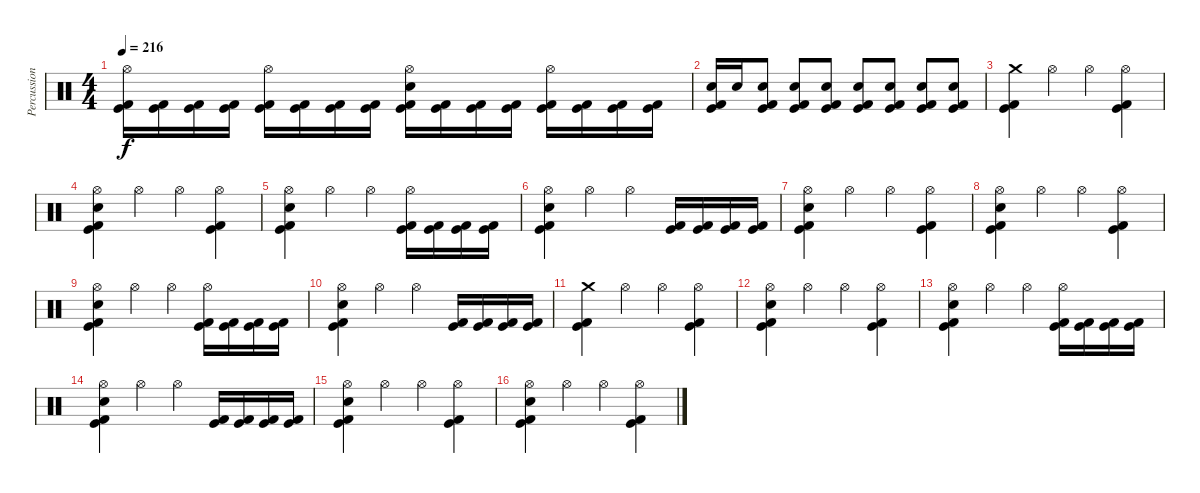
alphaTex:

\track ("Percussion" "Percussion") {instrument percussion}
\staff {score}
\articulation defaults
\ts (4 4)
\tempo 216
\clef neutral
\ks c
("Hi-Hat (open)" "Kick (hit)" "Kick (hit) 2").16{dy f} ("Kick (hit)" "Kick (hit) 2").16 ("Kick (hit)" "Kick (hit) 2").16 ("Kick (hit)" "Kick (hit) 2").16 ("Hi-Hat (open)" "Kick (hit)" "Kick (hit) 2").16 ("Kick (hit)" "Kick (hit) 2").16 ("Kick (hit)" "Kick (hit) 2").16 ("Kick (hit)" "Kick (hit) 2").16 ("Hi-Hat (open)" "Electric Snare (hit)" "Kick (hit)" "Kick (hit) 2").16 ("Kick (hit)" "Kick (hit) 2").16 ("Kick (hit)" "Kick (hit) 2").16 ("Kick (hit)" "Kick (hit) 2").16 ("Hi-Hat (open)" "Kick (hit)" "Kick (hit) 2").16 ("Kick (hit)" "Kick (hit) 2").16 ("Kick (hit)" "Kick (hit) 2").16 ("Kick (hit)" "Kick (hit) 2").16 |
("Electric Snare (hit)" "Kick (hit)" "Kick (hit) 2").16 "Electric Snare (hit)".16 ("Electric Snare (hit)" "Kick (hit)" "Kick (hit) 2").8 ("Electric Snare (hit)" "Kick (hit)" "Kick (hit) 2").8 ("Electric Snare (hit)" "Kick (hit)" "Kick (hit) 2").8 ("Electric Snare (hit)" "Kick (hit)" "Kick (hit) 2").8 ("Electric Snare (hit)" "Kick (hit)" "Kick (hit) 2").8 ("Electric Snare (hit)" "Kick (hit)" "Kick (hit) 2").8 ("Electric Snare (hit)" "Kick (hit)" "Kick (hit) 2").8 |
("Crash medium (hit)" "Kick (hit)" "Kick (hit) 2").4 "Hi-Hat (open)".4 "Hi-Hat (open)".4 ("Hi-Hat (open)" "Kick (hit)" "Kick (hit) 2").4 |
("Hi-Hat (open)" "Electric Snare (hit)" "Kick (hit)" "Kick (hit) 2").4 "Hi-Hat (open)".4 "Hi-Hat (open)".4 ("Hi-Hat (open)" "Kick (hit)" "Kick (hit) 2").4 |
("Hi-Hat (open)" "Electric Snare (hit)" "Kick (hit)" "Kick (hit) 2").4 "Hi-Hat (open)".4 "Hi-Hat (open)".4 ("Hi-Hat (open)" "Kick (hit)" "Kick (hit) 2").16 ("Kick (hit)" "Kick (hit) 2").16 ("Kick (hit)" "Kick (hit) 2").16 ("Kick (hit)" "Kick (hit) 2").16 |
("Hi-Hat (open)" "Electric Snare (hit)" "Kick (hit)" "Kick (hit) 2").4 "Hi-Hat (open)".4 "Hi-Hat (open)".4 ("Kick (hit)" "Kick (hit) 2").16 ("Kick (hit)" "Kick (hit) 2").16 ("Kick (hit)" "Kick (hit) 2").16 ("Kick (hit)" "Kick (hit) 2").16 |
("Hi-Hat (open)" "Electric Snare (hit)" "Kick (hit)" "Kick (hit) 2").4 "Hi-Hat (open)".4 "Hi-Hat (open)".4 ("Hi-Hat (open)" "Kick (hit)" "Kick (hit) 2").4 |
("Hi-Hat (open)" "Electric Snare (hit)" "Kick (hit)" "Kick (hit) 2").4 "Hi-Hat (open)".4 "Hi-Hat (open)".4 ("Hi-Hat (open)" "Kick (hit)" "Kick (hit) 2").4 |
("Hi-Hat (open)" "Electric Snare (hit)" "Kick (hit)" "Kick (hit) 2").4 "Hi-Hat (open)".4 "Hi-Hat (open)".4 ("Hi-Hat (open)" "Kick (hit)" "Kick (hit) 2").16 ("Kick (hit)" "Kick (hit) 2").16 ("Kick (hit)" "Kick (hit) 2").16 ("Kick (hit)" "Kick (hit) 2").16 |
("Hi-Hat (open)" "Electric Snare (hit)" "Kick (hit)" "Kick (hit) 2").4 "Hi-Hat (open)".4 "Hi-Hat (open)".4 ("Kick (hit)" "Kick (hit) 2").16 ("Kick (hit)" "Kick (hit) 2").16 ("Kick (hit)" "Kick (hit) 2").16 ("Kick (hit)" "Kick (hit) 2").16 |
("Crash medium (hit)" "Kick (hit)" "Kick (hit) 2").4 "Hi-Hat (open)".4 "Hi-Hat (open)".4 ("Hi-Hat (open)" "Kick (hit)" "Kick (hit) 2").4 |
("Hi-Hat (open)" "Electric Snare (hit)" "Kick (hit)" "Kick (hit) 2").4 "Hi-Hat (open)".4 "Hi-Hat (open)".4 ("Hi-Hat (open)" "Kick (hit)" "Kick (hit) 2").4 |
("Hi-Hat (open)" "Electric Snare (hit)" "Kick (hit)" "Kick (hit) 2").4 "Hi-Hat (open)".4 "Hi-Hat (open)".4 ("Hi-Hat (open)" "Kick (hit)" "Kick (hit) 2").16 ("Kick (hit)" "Kick (hit) 2").16 ("Kick (hit)" "Kick (hit) 2").16 ("Kick (hit)" "Kick (hit) 2").16 |
("Hi-Hat (open)" "Electric Snare (hit)" "Kick (hit)" "Kick (hit) 2").4 "Hi-Hat (open)".4 "Hi-Hat (open)".4 ("Kick (hit)" "Kick (hit) 2").16 ("Kick (hit)" "Kick (hit) 2").16 ("Kick (hit)" "Kick (hit) 2").16 ("Kick (hit)" "Kick (hit) 2").16 |
("Hi-Hat (open)" "Electric Snare (hit)" "Kick (hit)" "Kick (hit) 2").4 "Hi-Hat (open)".4 "Hi-Hat (open)".4 ("Hi-Hat (open)" "Kick (hit)" "Kick (hit) 2").4 |
("Hi-Hat (open)" "Electric Snare (hit)" "Kick (hit)" "Kick (hit) 2").4 "Hi-Hat (open)".4 "Hi-Hat (open)".4 ("Hi-Hat (open)" "Kick (hit)" "Kick (hit) 2").4
